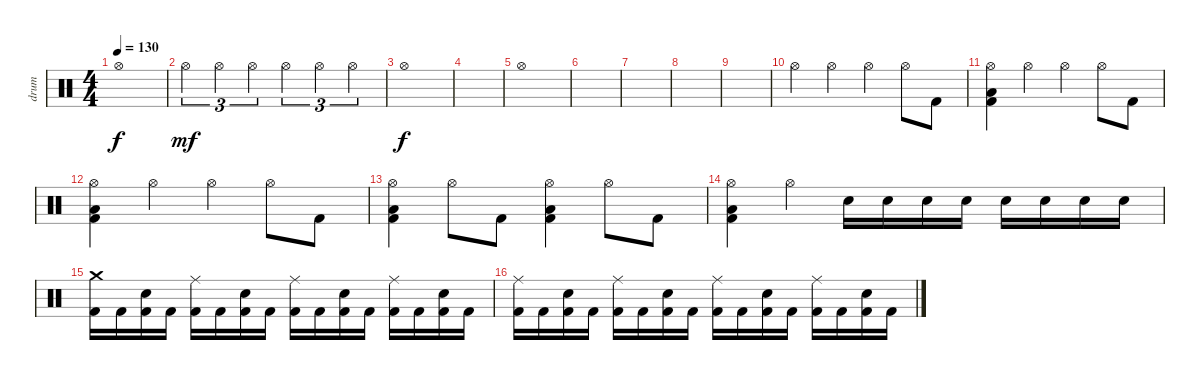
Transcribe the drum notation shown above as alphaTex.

\track ("drum" "drum") {instrument percussion}
\staff {score}
\articulation defaults
\ts (4 4)
\tempo 130
\clef neutral
\ks c "Hi-Hat (open)".1{dy f}
|
"Hi-Hat (open)".4{tu (3 2) dy mf} "Hi-Hat (open)".4{tu (3 2)} "Hi-Hat (open)".4{tu (3 2)} "Hi-Hat (open)".4{tu (3 2)} "Hi-Hat (open)".4{tu (3 2)} "Hi-Hat (open)".4{tu (3 2)} |
"Hi-Hat (open)".1{dy f} |
|
"Hi-Hat (open)".1 |
|
|
|
|
"Hi-Hat (open)".4 "Hi-Hat (open)".4 "Hi-Hat (open)".4 "Hi-Hat (open)".8 "Kick (hit) 2".8 |
("Hi-Hat (open)" "Low Floor Tom (hit)" "Kick (hit) 2").4 "Hi-Hat (open)".4 "Hi-Hat (open)".4 "Hi-Hat (open)".8 "Kick (hit) 2".8 |
("Hi-Hat (open)" "Low Floor Tom (hit)" "Kick (hit) 2").4 "Hi-Hat (open)".4 "Hi-Hat (open)".4 "Hi-Hat (open)".8 "Kick (hit) 2".8 |
("Hi-Hat (open)" "Low Floor Tom (hit)" "Kick (hit) 2").4 "Hi-Hat (open)".8 "Kick (hit) 2".8 ("Hi-Hat (open)" "Low Floor Tom (hit)" "Kick (hit) 2").4 "Hi-Hat (open)".8 "Kick (hit) 2".8 |
("Hi-Hat (open)" "Low Floor Tom (hit)" "Kick (hit) 2").4 "Hi-Hat (open)".4 "Snare (hit) 2".16 "Snare (hit) 2".16 "Snare (hit) 2".16 "Snare (hit) 2".16 "Snare (hit) 2".16 "Snare (hit) 2".16 "Snare (hit) 2".16 "Snare (hit) 2".16 |
("Crash medium (hit)" "Kick (hit) 2").16 "Kick (hit) 2".16 ("Snare (hit) 2" "Kick (hit) 2").16 "Kick (hit) 2".16 ("Ride (middle)" "Kick (hit) 2").16 "Kick (hit) 2".16 ("Snare (hit) 2" "Kick (hit) 2").16 "Kick (hit) 2".16 ("Ride (middle)" "Kick (hit) 2").16 "Kick (hit) 2".16 ("Snare (hit) 2" "Kick (hit) 2").16 "Kick (hit) 2".16 ("Ride (middle)" "Kick (hit) 2").16 "Kick (hit) 2".16 ("Snare (hit) 2" "Kick (hit) 2").16 "Kick (hit) 2".16 |
("Ride (middle)" "Kick (hit) 2").16 "Kick (hit) 2".16 ("Snare (hit) 2" "Kick (hit) 2").16 "Kick (hit) 2".16 ("Ride (middle)" "Kick (hit) 2").16 "Kick (hit) 2".16 ("Snare (hit) 2" "Kick (hit) 2").16 "Kick (hit) 2".16 ("Ride (middle)" "Kick (hit) 2").16 "Kick (hit) 2".16 ("Snare (hit) 2" "Kick (hit) 2").16 "Kick (hit) 2".16 ("Ride (middle)" "Kick (hit) 2").16 "Kick (hit) 2".16 ("Snare (hit) 2" "Kick (hit) 2").16 "Kick (hit) 2".16
